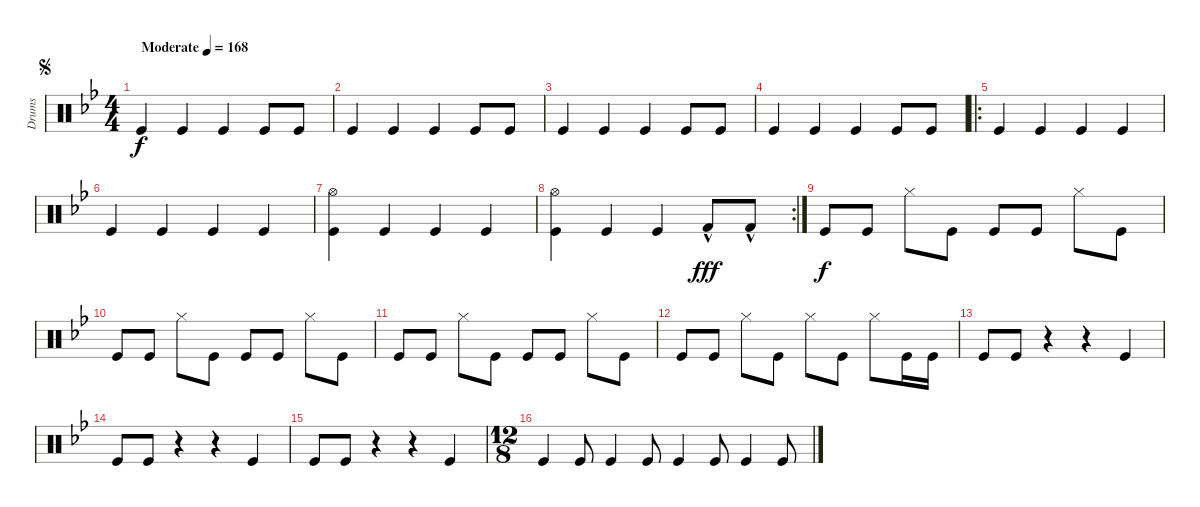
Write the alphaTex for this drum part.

\track ("Drums" "Drums") {instrument percussion}
\staff {score}
\articulation defaults
\ts (4 4)
\jump segno
\tempo (168 "Moderate")
\clef neutral
\ks bb "Kick (hit)".4{dy f} "Kick (hit)".4 "Kick (hit)".4 "Kick (hit)".8 "Kick (hit)".8
|
"Kick (hit)".4 "Kick (hit)".4 "Kick (hit)".4 "Kick (hit)".8 "Kick (hit)".8 |
"Kick (hit)".4 "Kick (hit)".4 "Kick (hit)".4 "Kick (hit)".8 "Kick (hit)".8 |
"Kick (hit)".4 "Kick (hit)".4 "Kick (hit)".4 "Kick (hit)".8 "Kick (hit)".8 |
\ro "Kick (hit)".4 "Kick (hit)".4 "Kick (hit)".4 "Kick (hit)".4
|
"Kick (hit)".4 "Kick (hit)".4 "Kick (hit)".4 "Kick (hit)".4 |
("Hi-Hat (open)" "Kick (hit)").4 "Kick (hit)".4 "Kick (hit)".4 "Kick (hit)".4 |
\rc 2
("Hi-Hat (open)" "Kick (hit)").4 "Kick (hit)".4 "Kick (hit)".4 "Kick (hit) 2"{hac}.8{dy fff} "Kick (hit) 2"{hac}.8 |
"Kick (hit)".8{dy f} "Kick (hit)".8 "Hi-Hat (closed)".8 "Kick (hit)".8 "Kick (hit)".8 "Kick (hit)".8 "Hi-Hat (closed)".8 "Kick (hit)".8 |
"Kick (hit)".8 "Kick (hit)".8 "Hi-Hat (closed)".8 "Kick (hit)".8 "Kick (hit)".8 "Kick (hit)".8 "Hi-Hat (closed)".8 "Kick (hit)".8 |
"Kick (hit)".8 "Kick (hit)".8 "Hi-Hat (closed)".8 "Kick (hit)".8 "Kick (hit)".8 "Kick (hit)".8 "Hi-Hat (closed)".8 "Kick (hit)".8 |
"Kick (hit)".8 "Kick (hit)".8 "Hi-Hat (closed)".8 "Kick (hit)".8 "Hi-Hat (closed)".8 "Kick (hit)".8 "Hi-Hat (closed)".8 "Kick (hit)".16 "Kick (hit)".16 |
"Kick (hit)".8 "Kick (hit)".8 r.4 r.4 "Kick (hit)".4 |
"Kick (hit)".8 "Kick (hit)".8 r.4 r.4 "Kick (hit)".4 |
"Kick (hit)".8 "Kick (hit)".8 r.4 r.4 "Kick (hit)".4 |
\ts (12 8)
"Kick (hit)".4 "Kick (hit)".8 "Kick (hit)".4 "Kick (hit)".8 "Kick (hit)".4 "Kick (hit)".8 "Kick (hit)".4 "Kick (hit)".8
